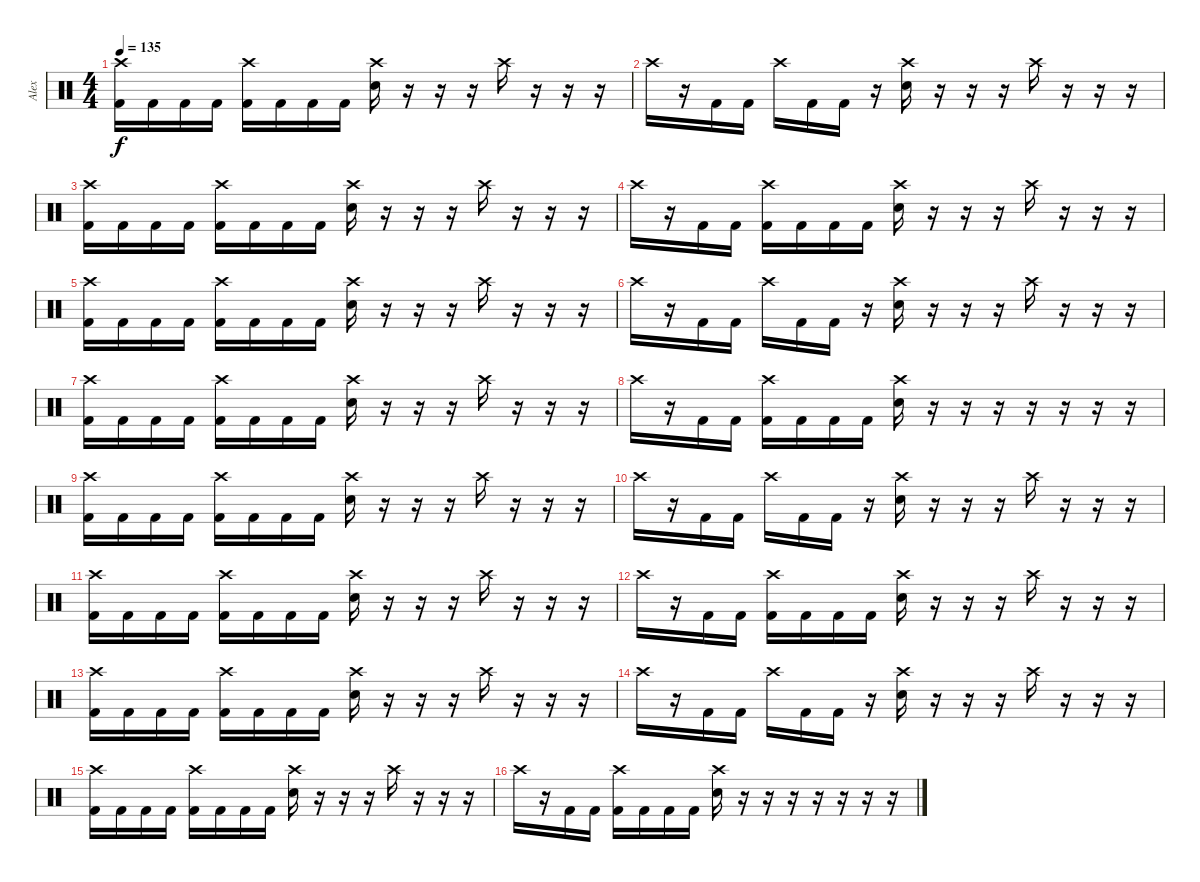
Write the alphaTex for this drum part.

\track ("Alex" "Alex") {instrument percussion}
\staff {score}
\articulation defaults
\ts (4 4)
\tempo 135
\clef neutral
\ks c
("Crash high (hit)" "Kick (hit) 2").16{dy f} "Kick (hit) 2".16 "Kick (hit) 2".16 "Kick (hit) 2".16 ("Crash high (hit)" "Kick (hit) 2").16 "Kick (hit) 2".16 "Kick (hit) 2".16 "Kick (hit) 2".16 ("Crash high (hit)" "Electric Snare (hit)").16 r.16 r.16 r.16 "Crash high (hit)".16 r.16 r.16 r.16 |
"Crash high (hit)".16 r.16 "Kick (hit) 2".16 "Kick (hit) 2".16 "Crash high (hit)".16 "Kick (hit) 2".16 "Kick (hit) 2".16 r.16 ("Crash high (hit)" "Electric Snare (hit)").16 r.16 r.16 r.16 "Crash high (hit)".16 r.16 r.16 r.16 |
("Crash high (hit)" "Kick (hit) 2").16 "Kick (hit) 2".16 "Kick (hit) 2".16 "Kick (hit) 2".16 ("Crash high (hit)" "Kick (hit) 2").16 "Kick (hit) 2".16 "Kick (hit) 2".16 "Kick (hit) 2".16 ("Crash high (hit)" "Electric Snare (hit)").16 r.16 r.16 r.16 "Crash high (hit)".16 r.16 r.16 r.16 |
"Crash high (hit)".16 r.16 "Kick (hit) 2".16 "Kick (hit) 2".16 ("Crash high (hit)" "Kick (hit) 2").16 "Kick (hit) 2".16 "Kick (hit) 2".16 "Kick (hit) 2".16 ("Crash high (hit)" "Electric Snare (hit)").16 r.16 r.16 r.16 "Crash high (hit)".16 r.16 r.16 r.16 |
("Crash high (hit)" "Kick (hit) 2").16 "Kick (hit) 2".16 "Kick (hit) 2".16 "Kick (hit) 2".16 ("Crash high (hit)" "Kick (hit) 2").16 "Kick (hit) 2".16 "Kick (hit) 2".16 "Kick (hit) 2".16 ("Crash high (hit)" "Electric Snare (hit)").16 r.16 r.16 r.16 "Crash high (hit)".16 r.16 r.16 r.16 |
"Crash high (hit)".16 r.16 "Kick (hit) 2".16 "Kick (hit) 2".16 "Crash high (hit)".16 "Kick (hit) 2".16 "Kick (hit) 2".16 r.16 ("Crash high (hit)" "Electric Snare (hit)").16 r.16 r.16 r.16 "Crash high (hit)".16 r.16 r.16 r.16 |
("Crash high (hit)" "Kick (hit) 2").16 "Kick (hit) 2".16 "Kick (hit) 2".16 "Kick (hit) 2".16 ("Crash high (hit)" "Kick (hit) 2").16 "Kick (hit) 2".16 "Kick (hit) 2".16 "Kick (hit) 2".16 ("Crash high (hit)" "Electric Snare (hit)").16 r.16 r.16 r.16 "Crash high (hit)".16 r.16 r.16 r.16 |
"Crash high (hit)".16 r.16 "Kick (hit) 2".16 "Kick (hit) 2".16 ("Crash high (hit)" "Kick (hit) 2").16 "Kick (hit) 2".16 "Kick (hit) 2".16 "Kick (hit) 2".16 ("Crash high (hit)" "Electric Snare (hit)").16 r.16 r.16 r.16 r.16 r.16 r.16 r.16 |
("Crash high (hit)" "Kick (hit) 2").16 "Kick (hit) 2".16 "Kick (hit) 2".16 "Kick (hit) 2".16 ("Crash high (hit)" "Kick (hit) 2").16 "Kick (hit) 2".16 "Kick (hit) 2".16 "Kick (hit) 2".16 ("Crash high (hit)" "Electric Snare (hit)").16 r.16 r.16 r.16 "Crash high (hit)".16 r.16 r.16 r.16 |
"Crash high (hit)".16 r.16 "Kick (hit) 2".16 "Kick (hit) 2".16 "Crash high (hit)".16 "Kick (hit) 2".16 "Kick (hit) 2".16 r.16 ("Crash high (hit)" "Electric Snare (hit)").16 r.16 r.16 r.16 "Crash high (hit)".16 r.16 r.16 r.16 |
("Crash high (hit)" "Kick (hit) 2").16 "Kick (hit) 2".16 "Kick (hit) 2".16 "Kick (hit) 2".16 ("Crash high (hit)" "Kick (hit) 2").16 "Kick (hit) 2".16 "Kick (hit) 2".16 "Kick (hit) 2".16 ("Crash high (hit)" "Electric Snare (hit)").16 r.16 r.16 r.16 "Crash high (hit)".16 r.16 r.16 r.16 |
"Crash high (hit)".16 r.16 "Kick (hit) 2".16 "Kick (hit) 2".16 ("Crash high (hit)" "Kick (hit) 2").16 "Kick (hit) 2".16 "Kick (hit) 2".16 "Kick (hit) 2".16 ("Crash high (hit)" "Electric Snare (hit)").16 r.16 r.16 r.16 "Crash high (hit)".16 r.16 r.16 r.16 |
("Crash high (hit)" "Kick (hit) 2").16 "Kick (hit) 2".16 "Kick (hit) 2".16 "Kick (hit) 2".16 ("Crash high (hit)" "Kick (hit) 2").16 "Kick (hit) 2".16 "Kick (hit) 2".16 "Kick (hit) 2".16 ("Crash high (hit)" "Electric Snare (hit)").16 r.16 r.16 r.16 "Crash high (hit)".16 r.16 r.16 r.16 |
"Crash high (hit)".16 r.16 "Kick (hit) 2".16 "Kick (hit) 2".16 "Crash high (hit)".16 "Kick (hit) 2".16 "Kick (hit) 2".16 r.16 ("Crash high (hit)" "Electric Snare (hit)").16 r.16 r.16 r.16 "Crash high (hit)".16 r.16 r.16 r.16 |
("Crash high (hit)" "Kick (hit) 2").16 "Kick (hit) 2".16 "Kick (hit) 2".16 "Kick (hit) 2".16 ("Crash high (hit)" "Kick (hit) 2").16 "Kick (hit) 2".16 "Kick (hit) 2".16 "Kick (hit) 2".16 ("Crash high (hit)" "Electric Snare (hit)").16 r.16 r.16 r.16 "Crash high (hit)".16 r.16 r.16 r.16 |
"Crash high (hit)".16 r.16 "Kick (hit) 2".16 "Kick (hit) 2".16 ("Crash high (hit)" "Kick (hit) 2").16 "Kick (hit) 2".16 "Kick (hit) 2".16 "Kick (hit) 2".16 ("Crash high (hit)" "Electric Snare (hit)").16 r.16 r.16 r.16 r.16 r.16 r.16 r.16
